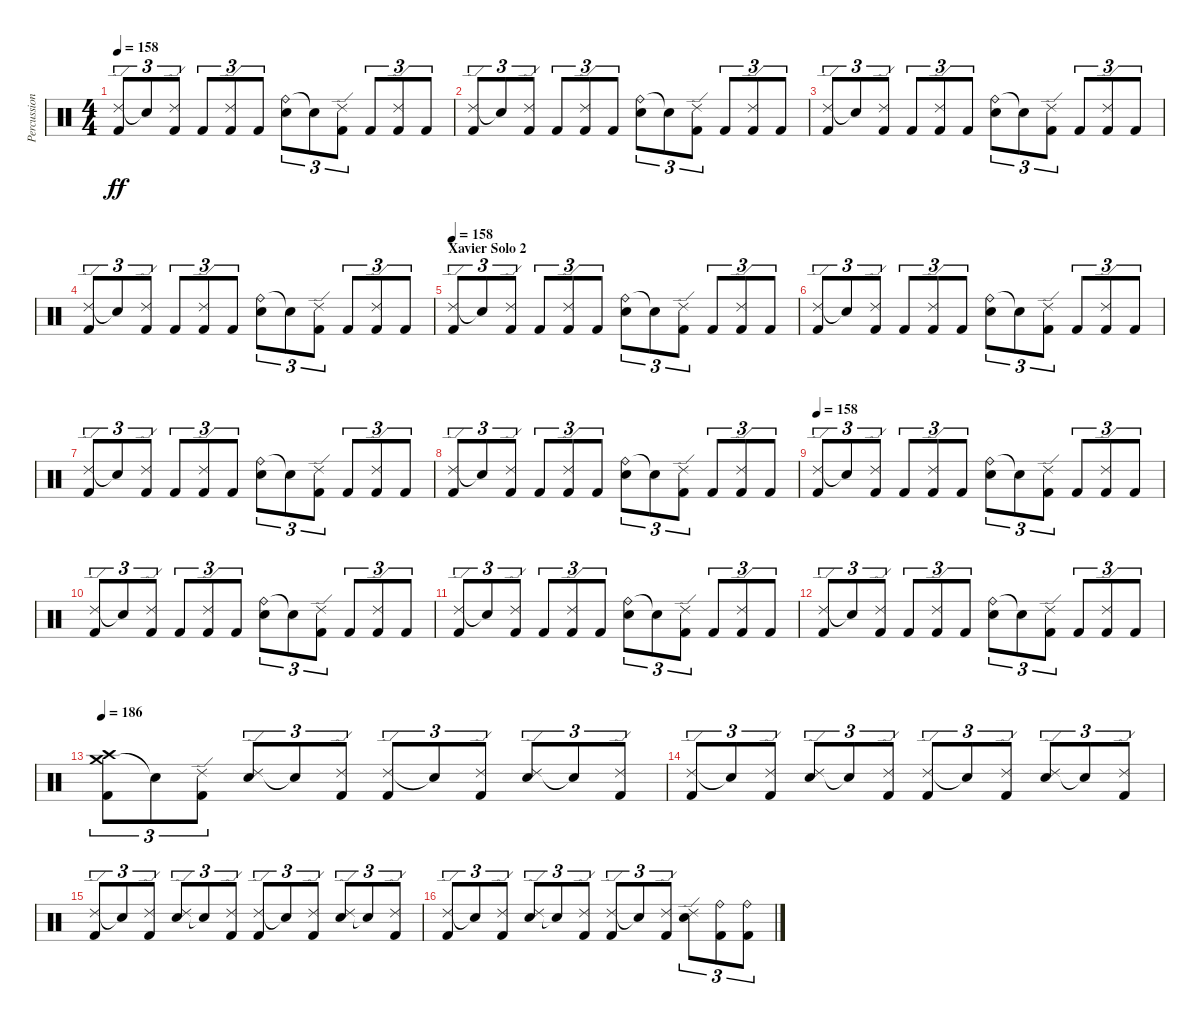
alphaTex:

\track ("Percussion" "Percussion") {instrument percussion}
\staff {score}
\articulation defaults
\ts (4 4)
\tempo 158
\clef neutral
\ks c
("Ride (edge) 2" "Kick (hit) 2").8{tu (3 2) dy ff} "Snare (hit)"{t}.8{tu (3 2)} ("Ride (edge) 2" "Kick (hit) 2").8{tu (3 2)} "Kick (hit) 2".8{tu (3 2)} ("Ride (edge) 2" "Kick (hit) 2").8{tu (3 2)} "Kick (hit) 2".8{tu (3 2)} ("Ride (bell)" "Snare (hit) 2").8{tu (3 2)} "Snare (hit)"{t}.8{tu (3 2)} ("Ride (edge) 2" "Kick (hit) 2").8{tu (3 2)} "Kick (hit) 2".8{tu (3 2)} ("Ride (edge) 2" "Kick (hit) 2").8{tu (3 2)} "Kick (hit) 2".8{tu (3 2)} |
("Ride (edge) 2" "Kick (hit) 2").8{tu (3 2)} "Snare (hit)"{t}.8{tu (3 2)} ("Ride (edge) 2" "Kick (hit) 2").8{tu (3 2)} "Kick (hit) 2".8{tu (3 2)} ("Ride (edge) 2" "Kick (hit) 2").8{tu (3 2)} "Kick (hit) 2".8{tu (3 2)} ("Ride (bell)" "Snare (hit) 2").8{tu (3 2)} "Snare (hit)"{t}.8{tu (3 2)} ("Ride (edge) 2" "Kick (hit) 2").8{tu (3 2)} "Kick (hit) 2".8{tu (3 2)} ("Ride (edge) 2" "Kick (hit) 2").8{tu (3 2)} "Kick (hit) 2".8{tu (3 2)} |
("Ride (edge) 2" "Kick (hit) 2").8{tu (3 2)} "Snare (hit)"{t}.8{tu (3 2)} ("Ride (edge) 2" "Kick (hit) 2").8{tu (3 2)} "Kick (hit) 2".8{tu (3 2)} ("Ride (edge) 2" "Kick (hit) 2").8{tu (3 2)} "Kick (hit) 2".8{tu (3 2)} ("Ride (bell)" "Snare (hit) 2").8{tu (3 2)} "Snare (hit)"{t}.8{tu (3 2)} ("Ride (edge) 2" "Kick (hit) 2").8{tu (3 2)} "Kick (hit) 2".8{tu (3 2)} ("Ride (edge) 2" "Kick (hit) 2").8{tu (3 2)} "Kick (hit) 2".8{tu (3 2)} |
("Ride (edge) 2" "Kick (hit) 2").8{tu (3 2)} "Snare (hit)"{t}.8{tu (3 2)} ("Ride (edge) 2" "Kick (hit) 2").8{tu (3 2)} "Kick (hit) 2".8{tu (3 2)} ("Ride (edge) 2" "Kick (hit) 2").8{tu (3 2)} "Kick (hit) 2".8{tu (3 2)} ("Ride (bell)" "Snare (hit) 2").8{tu (3 2)} "Snare (hit)"{t}.8{tu (3 2)} ("Ride (edge) 2" "Kick (hit) 2").8{tu (3 2)} "Kick (hit) 2".8{tu (3 2)} ("Ride (edge) 2" "Kick (hit) 2").8{tu (3 2)} "Kick (hit) 2".8{tu (3 2)} |
\section ("" "Xavier Solo 2")
\tempo 158
("Ride (edge) 2" "Kick (hit) 2").8{tu (3 2)} "Snare (hit)"{t}.8{tu (3 2)} ("Ride (edge) 2" "Kick (hit) 2").8{tu (3 2)} "Kick (hit) 2".8{tu (3 2)} ("Ride (edge) 2" "Kick (hit) 2").8{tu (3 2)} "Kick (hit) 2".8{tu (3 2)} ("Ride (bell)" "Snare (hit) 2").8{tu (3 2)} "Snare (hit)"{t}.8{tu (3 2)} ("Ride (edge) 2" "Kick (hit) 2").8{tu (3 2)} "Kick (hit) 2".8{tu (3 2)} ("Ride (edge) 2" "Kick (hit) 2").8{tu (3 2)} "Kick (hit) 2".8{tu (3 2)} |
("Ride (edge) 2" "Kick (hit) 2").8{tu (3 2)} "Snare (hit)"{t}.8{tu (3 2)} ("Ride (edge) 2" "Kick (hit) 2").8{tu (3 2)} "Kick (hit) 2".8{tu (3 2)} ("Ride (edge) 2" "Kick (hit) 2").8{tu (3 2)} "Kick (hit) 2".8{tu (3 2)} ("Ride (bell)" "Snare (hit) 2").8{tu (3 2)} "Snare (hit)"{t}.8{tu (3 2)} ("Ride (edge) 2" "Kick (hit) 2").8{tu (3 2)} "Kick (hit) 2".8{tu (3 2)} ("Ride (edge) 2" "Kick (hit) 2").8{tu (3 2)} "Kick (hit) 2".8{tu (3 2)} |
("Ride (edge) 2" "Kick (hit) 2").8{tu (3 2)} "Snare (hit)"{t}.8{tu (3 2)} ("Ride (edge) 2" "Kick (hit) 2").8{tu (3 2)} "Kick (hit) 2".8{tu (3 2)} ("Ride (edge) 2" "Kick (hit) 2").8{tu (3 2)} "Kick (hit) 2".8{tu (3 2)} ("Ride (bell)" "Snare (hit) 2").8{tu (3 2)} "Snare (hit)"{t}.8{tu (3 2)} ("Ride (edge) 2" "Kick (hit) 2").8{tu (3 2)} "Kick (hit) 2".8{tu (3 2)} ("Ride (edge) 2" "Kick (hit) 2").8{tu (3 2)} "Kick (hit) 2".8{tu (3 2)} |
("Ride (edge) 2" "Kick (hit) 2").8{tu (3 2)} "Snare (hit)"{t}.8{tu (3 2)} ("Ride (edge) 2" "Kick (hit) 2").8{tu (3 2)} "Kick (hit) 2".8{tu (3 2)} ("Ride (edge) 2" "Kick (hit) 2").8{tu (3 2)} "Kick (hit) 2".8{tu (3 2)} ("Ride (bell)" "Snare (hit) 2").8{tu (3 2)} "Snare (hit)"{t}.8{tu (3 2)} ("Ride (edge) 2" "Kick (hit) 2").8{tu (3 2)} "Kick (hit) 2".8{tu (3 2)} ("Ride (edge) 2" "Kick (hit) 2").8{tu (3 2)} "Kick (hit) 2".8{tu (3 2)} |
\tempo 158
("Ride (edge) 2" "Kick (hit) 2").8{tu (3 2)} "Snare (hit)"{t}.8{tu (3 2)} ("Ride (edge) 2" "Kick (hit) 2").8{tu (3 2)} "Kick (hit) 2".8{tu (3 2)} ("Ride (edge) 2" "Kick (hit) 2").8{tu (3 2)} "Kick (hit) 2".8{tu (3 2)} ("Ride (bell)" "Snare (hit) 2").8{tu (3 2)} "Snare (hit)"{t}.8{tu (3 2)} ("Ride (edge) 2" "Kick (hit) 2").8{tu (3 2)} "Kick (hit) 2".8{tu (3 2)} ("Ride (edge) 2" "Kick (hit) 2").8{tu (3 2)} "Kick (hit) 2".8{tu (3 2)} |
("Ride (edge) 2" "Kick (hit) 2").8{tu (3 2)} "Snare (hit)"{t}.8{tu (3 2)} ("Ride (edge) 2" "Kick (hit) 2").8{tu (3 2)} "Kick (hit) 2".8{tu (3 2)} ("Ride (edge) 2" "Kick (hit) 2").8{tu (3 2)} "Kick (hit) 2".8{tu (3 2)} ("Ride (bell)" "Snare (hit) 2").8{tu (3 2)} "Snare (hit)"{t}.8{tu (3 2)} ("Ride (edge) 2" "Kick (hit) 2").8{tu (3 2)} "Kick (hit) 2".8{tu (3 2)} ("Ride (edge) 2" "Kick (hit) 2").8{tu (3 2)} "Kick (hit) 2".8{tu (3 2)} |
("Ride (edge) 2" "Kick (hit) 2").8{tu (3 2)} "Snare (hit)"{t}.8{tu (3 2)} ("Ride (edge) 2" "Kick (hit) 2").8{tu (3 2)} "Kick (hit) 2".8{tu (3 2)} ("Ride (edge) 2" "Kick (hit) 2").8{tu (3 2)} "Kick (hit) 2".8{tu (3 2)} ("Ride (bell)" "Snare (hit) 2").8{tu (3 2)} "Snare (hit)"{t}.8{tu (3 2)} ("Ride (edge) 2" "Kick (hit) 2").8{tu (3 2)} "Kick (hit) 2".8{tu (3 2)} ("Ride (edge) 2" "Kick (hit) 2").8{tu (3 2)} "Kick (hit) 2".8{tu (3 2)} |
("Ride (edge) 2" "Kick (hit) 2").8{tu (3 2)} "Snare (hit)"{t}.8{tu (3 2)} ("Ride (edge) 2" "Kick (hit) 2").8{tu (3 2)} "Kick (hit) 2".8{tu (3 2)} ("Ride (edge) 2" "Kick (hit) 2").8{tu (3 2)} "Kick (hit) 2".8{tu (3 2)} ("Ride (bell)" "Snare (hit) 2").8{tu (3 2)} "Snare (hit)"{t}.8{tu (3 2)} ("Ride (edge) 2" "Kick (hit) 2").8{tu (3 2)} "Kick (hit) 2".8{tu (3 2)} ("Ride (edge) 2" "Kick (hit) 2").8{tu (3 2)} "Kick (hit) 2".8{tu (3 2)} |
\tempo 186
("Crash medium (hit)" "Crash high (hit)" "Kick (hit) 2").8{tu (3 2)} "Snare (hit)"{t}.8{tu (3 2)} ("Ride (edge) 2" "Kick (hit) 2").8{tu (3 2)} ("Ride (edge) 2" "Snare (hit) 2").8{tu (3 2)} "Snare (hit)"{t}.8{tu (3 2)} ("Ride (edge) 2" "Kick (hit) 2").8{tu (3 2)} ("Ride (edge) 2" "Kick (hit) 2").8{tu (3 2)} "Snare (hit)"{t}.8{tu (3 2)} ("Ride (edge) 2" "Kick (hit) 2").8{tu (3 2)} ("Ride (edge) 2" "Snare (hit) 2").8{tu (3 2)} "Snare (hit)"{t}.8{tu (3 2)} ("Ride (edge) 2" "Kick (hit) 2").8{tu (3 2)} |
("Ride (edge) 2" "Kick (hit) 2").8{tu (3 2)} "Snare (hit)"{t}.8{tu (3 2)} ("Ride (edge) 2" "Kick (hit) 2").8{tu (3 2)} ("Ride (edge) 2" "Snare (hit) 2").8{tu (3 2)} "Snare (hit)"{t}.8{tu (3 2)} ("Ride (edge) 2" "Kick (hit) 2").8{tu (3 2)} ("Ride (edge) 2" "Kick (hit) 2").8{tu (3 2)} "Snare (hit)"{t}.8{tu (3 2)} ("Ride (edge) 2" "Kick (hit) 2").8{tu (3 2)} ("Ride (edge) 2" "Snare (hit) 2").8{tu (3 2)} "Snare (hit)"{t}.8{tu (3 2)} ("Ride (edge) 2" "Kick (hit) 2").8{tu (3 2)} |
("Ride (edge) 2" "Kick (hit) 2").8{tu (3 2)} "Snare (hit)"{t}.8{tu (3 2)} ("Ride (edge) 2" "Kick (hit) 2").8{tu (3 2)} ("Ride (edge) 2" "Snare (hit) 2").8{tu (3 2)} "Snare (hit)"{t}.8{tu (3 2)} ("Ride (edge) 2" "Kick (hit) 2").8{tu (3 2)} ("Ride (edge) 2" "Kick (hit) 2").8{tu (3 2)} "Snare (hit)"{t}.8{tu (3 2)} ("Ride (edge) 2" "Kick (hit) 2").8{tu (3 2)} ("Ride (edge) 2" "Snare (hit) 2").8{tu (3 2)} "Snare (hit)"{t}.8{tu (3 2)} ("Ride (edge) 2" "Kick (hit) 2").8{tu (3 2)} |
("Ride (edge) 2" "Kick (hit) 2").8{tu (3 2)} "Snare (hit)"{t}.8{tu (3 2)} ("Ride (edge) 2" "Kick (hit) 2").8{tu (3 2)} ("Ride (edge) 2" "Snare (hit) 2").8{tu (3 2)} "Snare (hit)"{t}.8{tu (3 2)} ("Ride (edge) 2" "Kick (hit) 2").8{tu (3 2)} ("Ride (edge) 2" "Kick (hit) 2").8{tu (3 2)} "Snare (hit)"{t}.8{tu (3 2)} ("Ride (edge) 2" "Kick (hit) 2").8{tu (3 2)} ("Ride (edge) 2" "Snare (hit) 2").8{tu (3 2)} ("Ride (bell)" "Kick (hit) 2").8{tu (3 2)} ("Ride (bell)" "Kick (hit) 2").8{tu (3 2)}
